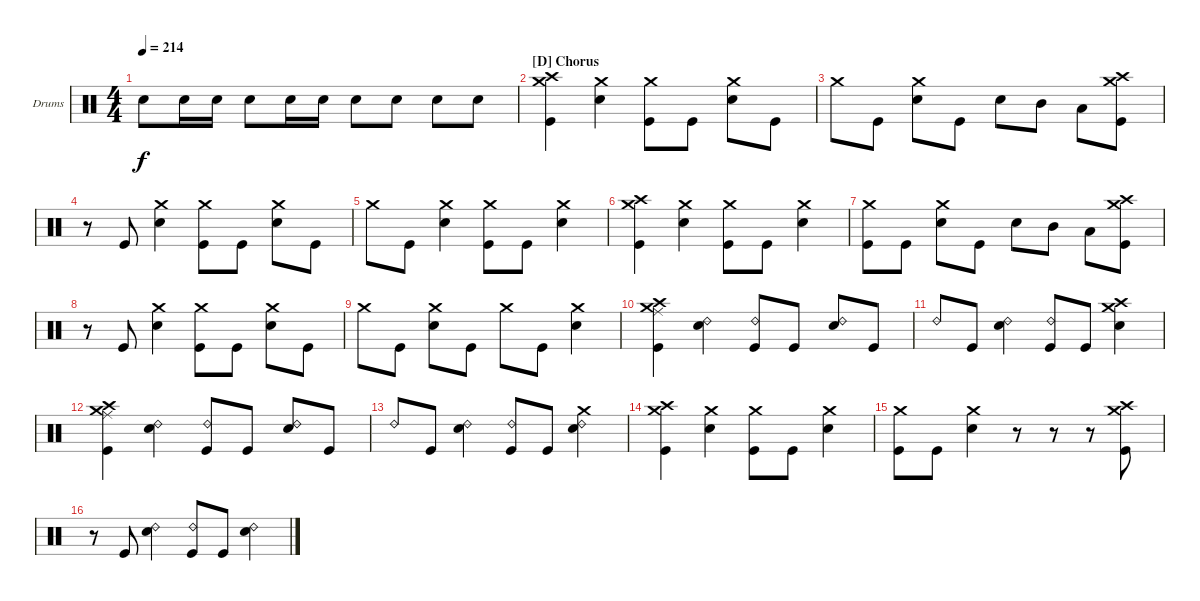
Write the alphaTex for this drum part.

\defaultSystemsLayout 4
\bracketExtendMode groupsimilarinstruments
\firstSystemTrackNameOrientation horizontal
\otherSystemsTrackNameOrientation horizontal
\track ("Brandon" "Drums") {instrument percussion}
\staff {score}
\articulation defaults
\ts (4 4)
\tempo 214
\clef neutral
\ks c "Snare (hit) 2".8{dy f} "Snare (hit) 2".16 "Snare (hit) 2".16 "Snare (hit) 2".8 "Snare (hit) 2".16 "Snare (hit) 2".16 "Snare (hit) 2".8 "Snare (hit) 2".8 "Snare (hit) 2".8 "Snare (hit) 2".8
|
\section ("D" "Chorus")
("Kick (hit)" "Crash high (hit)" "Crash medium (hit)").4 ("Snare (hit) 2" "Crash medium (hit)").4 ("Kick (hit)" "Crash medium (hit)").8 "Kick (hit)".8 ("Snare (hit) 2" "Crash medium (hit)").8 "Kick (hit)".8 |
"Crash medium (hit)".8 "Kick (hit)".8 ("Snare (hit) 2" "Crash medium (hit)").8 "Kick (hit)".8 "Snare (hit) 2".8 "Mid Tom (hit)".8 "Low Tom (hit)".8 ("Crash medium (hit)" "Crash high (hit)" "Kick (hit)").8 |
r.8 "Kick (hit)".8 ("Snare (hit) 2" "Crash medium (hit)").4 ("Kick (hit)" "Crash medium (hit)").8 "Kick (hit)".8 ("Snare (hit) 2" "Crash medium (hit)").8 "Kick (hit)".8 |
"Crash medium (hit)".8 "Kick (hit)".8 ("Snare (hit) 2" "Crash medium (hit)").4 ("Kick (hit)" "Crash medium (hit)").8 "Kick (hit)".8 ("Snare (hit) 2" "Crash medium (hit)").4 |
("Kick (hit)" "Crash high (hit)" "Crash medium (hit)").4 ("Snare (hit) 2" "Crash medium (hit)").4 ("Kick (hit)" "Crash medium (hit)").8 "Kick (hit)".8 ("Snare (hit) 2" "Crash medium (hit)").4 |
("Kick (hit)" "Crash medium (hit)").8 "Kick (hit)".8 ("Snare (hit) 2" "Crash medium (hit)").8 "Kick (hit)".8 "Snare (hit) 2".8 "Mid Tom (hit)".8 "Low Tom (hit)".8 ("Crash medium (hit)" "Crash high (hit)" "Kick (hit)").8 |
r.8 "Kick (hit)".8 ("Snare (hit) 2" "Crash medium (hit)").4 ("Kick (hit)" "Crash medium (hit)").8 "Kick (hit)".8 ("Snare (hit) 2" "Crash medium (hit)").8 "Kick (hit)".8 |
"Crash medium (hit)".8 "Kick (hit)".8 ("Snare (hit) 2" "Crash medium (hit)").8 "Kick (hit)".8 "Crash medium (hit)".8 "Kick (hit)".8 ("Snare (hit) 2" "Crash medium (hit)").4 |
("Kick (hit)" "Crash high (hit)" "Crash medium (hit)" "Ride (middle)").4 ("Snare (hit) 2" "Ride (bell) 2").4 ("Kick (hit)" "Ride (bell) 2").8 "Kick (hit)".8 ("Snare (hit) 2" "Ride (bell) 2").8 "Kick (hit)".8 |
"Ride (bell) 2".8 "Kick (hit)".8 ("Snare (hit) 2" "Ride (bell) 2").4 ("Kick (hit)" "Ride (bell) 2").8 "Kick (hit)".8 ("Snare (hit) 2" "Crash medium (hit)" "Crash high (hit)").4 |
("Kick (hit)" "Crash high (hit)" "Crash medium (hit)" "Ride (middle)").4 ("Snare (hit) 2" "Ride (bell) 2").4 ("Kick (hit)" "Ride (bell) 2").8 "Kick (hit)".8 ("Snare (hit) 2" "Ride (bell) 2").8 "Kick (hit)".8 |
"Ride (bell) 2".8 "Kick (hit)".8 ("Snare (hit) 2" "Ride (bell) 2").4 ("Kick (hit)" "Ride (bell) 2").8 "Kick (hit)".8 ("Snare (hit) 2" "Ride (bell) 2" "Crash medium (hit)").4 |
("Kick (hit)" "Crash high (hit)" "Crash medium (hit)").4 ("Snare (hit) 2" "Crash medium (hit)").4 ("Kick (hit)" "Crash medium (hit)").8 "Kick (hit)".8 ("Snare (hit) 2" "Crash medium (hit)").4 |
("Kick (hit)" "Crash medium (hit)").8 "Kick (hit)".8 ("Snare (hit) 2" "Crash medium (hit)").4 r.8 r.8 r.8 ("Crash medium (hit)" "Crash high (hit)" "Kick (hit)").8 |
r.8 "Kick (hit)".8 ("Snare (hit) 2" "Ride (bell) 2").4 ("Kick (hit)" "Ride (bell) 2").8 "Kick (hit)".8 ("Snare (hit) 2" "Ride (bell) 2").4
